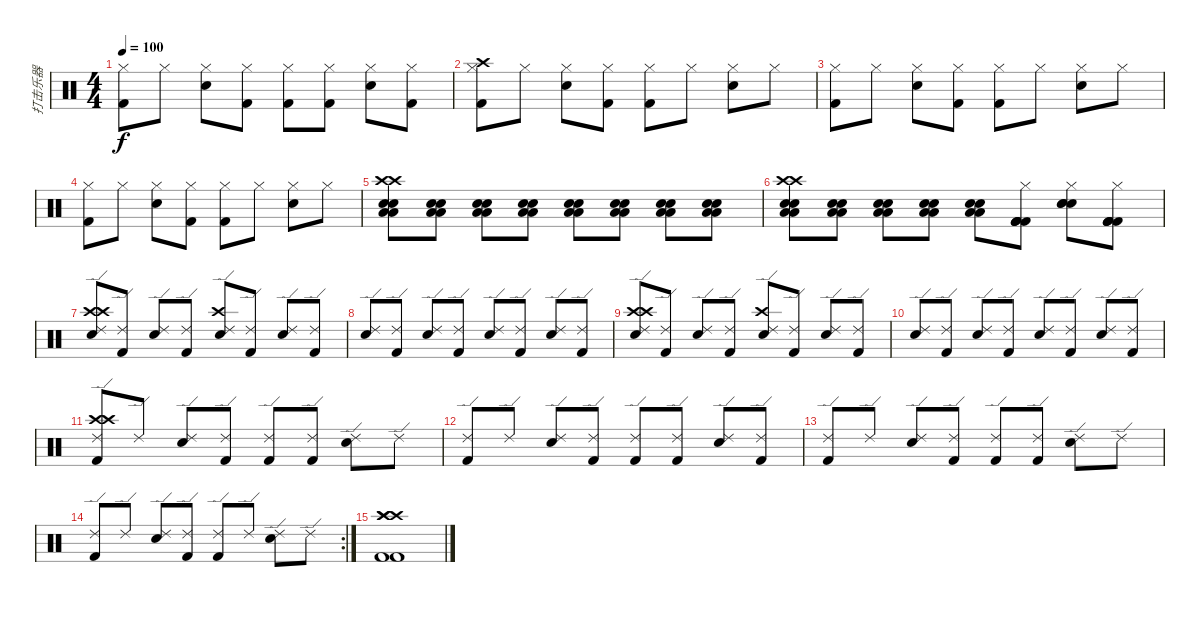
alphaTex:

\track ("打击乐器" "打击乐器") {instrument percussion}
\staff {score}
\articulation defaults
\ts (4 4)
\tempo 100
\clef neutral
\ks c
("Hi-Hat (closed)" "Kick (hit) 2").8{dy f} "Hi-Hat (closed)".8 ("Hi-Hat (closed)" "Snare (hit) 2").8 ("Hi-Hat (closed)" "Kick (hit) 2").8 ("Hi-Hat (closed)" "Kick (hit) 2").8 ("Hi-Hat (closed)" "Kick (hit) 2").8 ("Hi-Hat (closed)" "Snare (hit) 2").8 ("Hi-Hat (closed)" "Kick (hit) 2").8 |
("Hi-Hat (closed)" "Crash high (hit)" "Kick (hit) 2").8 "Hi-Hat (closed)".8 ("Hi-Hat (closed)" "Snare (hit) 2").8 ("Hi-Hat (closed)" "Kick (hit) 2").8 ("Hi-Hat (closed)" "Kick (hit) 2").8 "Hi-Hat (closed)".8 ("Hi-Hat (closed)" "Snare (hit) 2").8 "Hi-Hat (closed)".8 |
("Hi-Hat (closed)" "Kick (hit) 2").8 "Hi-Hat (closed)".8 ("Hi-Hat (closed)" "Snare (hit) 2").8 ("Hi-Hat (closed)" "Kick (hit) 2").8 ("Hi-Hat (closed)" "Kick (hit) 2").8 "Hi-Hat (closed)".8 ("Hi-Hat (closed)" "Snare (hit) 2").8 "Hi-Hat (closed)".8 |
("Hi-Hat (closed)" "Kick (hit) 2").8 "Hi-Hat (closed)".8 ("Hi-Hat (closed)" "Snare (hit) 2").8 ("Hi-Hat (closed)" "Kick (hit) 2").8 ("Hi-Hat (closed)" "Kick (hit) 2").8 "Hi-Hat (closed)".8 ("Hi-Hat (closed)" "Snare (hit) 2").8 "Hi-Hat (closed)".8 |
("Low Tom (hit)" "Low Tom (hit)" "Snare (hit) 2" "Snare (hit) 2" "Crash high (hit)" "Crash high (hit)").8 ("Low Tom (hit)" "Low Tom (hit)" "Snare (hit) 2" "Snare (hit) 2").8 ("Low Tom (hit)" "Low Tom (hit)" "Snare (hit) 2" "Snare (hit) 2").8 ("Low Tom (hit)" "Low Tom (hit)" "Snare (hit) 2" "Snare (hit) 2").8 ("Low Tom (hit)" "Low Tom (hit)" "Snare (hit) 2" "Snare (hit) 2").8 ("Low Tom (hit)" "Low Tom (hit)" "Snare (hit) 2" "Snare (hit) 2").8 ("Low Tom (hit)" "Low Tom (hit)" "Snare (hit) 2" "Snare (hit) 2").8 ("Low Tom (hit)" "Low Tom (hit)" "Snare (hit) 2" "Snare (hit) 2").8 |
("Low Tom (hit)" "Low Tom (hit)" "Snare (hit) 2" "Snare (hit) 2" "Crash high (hit)" "Crash high (hit)").8 ("Low Tom (hit)" "Low Tom (hit)" "Snare (hit) 2" "Snare (hit) 2").8 ("Low Tom (hit)" "Low Tom (hit)" "Snare (hit) 2" "Snare (hit) 2").8 ("Low Tom (hit)" "Low Tom (hit)" "Snare (hit) 2" "Snare (hit) 2").8 ("Low Tom (hit)" "Low Tom (hit)" "Snare (hit) 2" "Snare (hit) 2").8 ("Hi-Hat (closed)" "Kick (hit) 2" "Kick (hit) 2" "Kick (hit) 2" "Kick (hit) 2").8 ("Hi-Hat (closed)" "Snare (hit) 2" "Snare (hit) 2" "Snare (hit) 2").8 ("Hi-Hat (closed)" "Kick (hit) 2" "Kick (hit) 2" "Kick (hit) 2" "Kick (hit) 2").8 |
("Ride (edge) 2" "Crash high (hit)" "Snare (hit) 2" "Crash high (hit)").8 ("Ride (edge) 2" "Kick (hit) 2").8 ("Ride (edge) 2" "Snare (hit) 2").8 ("Ride (edge) 2" "Kick (hit) 2").8 ("Ride (edge) 2" "Crash high (hit)" "Snare (hit) 2").8 ("Ride (edge) 2" "Kick (hit) 2").8 ("Ride (edge) 2" "Snare (hit) 2").8 ("Ride (edge) 2" "Kick (hit) 2").8 |
("Ride (edge) 2" "Snare (hit) 2").8 ("Ride (edge) 2" "Kick (hit) 2").8 ("Ride (edge) 2" "Snare (hit) 2").8 ("Ride (edge) 2" "Kick (hit) 2").8 ("Ride (edge) 2" "Snare (hit) 2").8 ("Ride (edge) 2" "Kick (hit) 2").8 ("Ride (edge) 2" "Snare (hit) 2").8 ("Ride (edge) 2" "Kick (hit) 2").8 |
("Ride (edge) 2" "Crash high (hit)" "Snare (hit) 2" "Crash high (hit)").8 ("Ride (edge) 2" "Kick (hit) 2").8 ("Ride (edge) 2" "Snare (hit) 2").8 ("Ride (edge) 2" "Kick (hit) 2").8 ("Ride (edge) 2" "Crash high (hit)" "Snare (hit) 2").8 ("Ride (edge) 2" "Kick (hit) 2").8 ("Ride (edge) 2" "Snare (hit) 2").8 ("Ride (edge) 2" "Kick (hit) 2").8 |
("Ride (edge) 2" "Snare (hit) 2").8 ("Ride (edge) 2" "Kick (hit) 2").8 ("Ride (edge) 2" "Snare (hit) 2").8 ("Ride (edge) 2" "Kick (hit) 2").8 ("Ride (edge) 2" "Snare (hit) 2").8 ("Ride (edge) 2" "Kick (hit) 2").8 ("Ride (edge) 2" "Snare (hit) 2").8 ("Ride (edge) 2" "Kick (hit) 2").8 |
("Ride (edge) 2" "Crash high (hit)" "Crash high (hit)" "Kick (hit) 2").8 "Ride (edge) 2".8 ("Ride (edge) 2" "Snare (hit) 2").8 ("Ride (edge) 2" "Kick (hit) 2").8 ("Ride (edge) 2" "Kick (hit) 2").8 ("Ride (edge) 2" "Kick (hit) 2").8 ("Ride (edge) 2" "Snare (hit) 2").8 "Ride (edge) 2".8 |
("Ride (edge) 2" "Kick (hit) 2").8 "Ride (edge) 2".8 ("Ride (edge) 2" "Snare (hit) 2").8 ("Ride (edge) 2" "Kick (hit) 2").8 ("Ride (edge) 2" "Kick (hit) 2").8 ("Ride (edge) 2" "Kick (hit) 2").8 ("Ride (edge) 2" "Snare (hit) 2").8 ("Ride (edge) 2" "Kick (hit) 2").8 |
("Ride (edge) 2" "Kick (hit) 2").8 "Ride (edge) 2".8 ("Ride (edge) 2" "Snare (hit) 2").8 ("Ride (edge) 2" "Kick (hit) 2").8 ("Ride (edge) 2" "Kick (hit) 2").8 ("Ride (edge) 2" "Kick (hit) 2").8 ("Ride (edge) 2" "Snare (hit) 2").8 "Ride (edge) 2".8 |
\rc 2
("Ride (edge) 2" "Kick (hit) 2").8 "Ride (edge) 2".8 ("Ride (edge) 2" "Snare (hit) 2").8 ("Ride (edge) 2" "Kick (hit) 2").8 ("Ride (edge) 2" "Kick (hit) 2").8 "Ride (edge) 2".8 ("Ride (edge) 2" "Snare (hit) 2").8 "Ride (edge) 2".8 |
("Crash high (hit)" "Crash high (hit)" "Crash high (hit)" "Kick (hit) 2" "Kick (hit) 2").1
